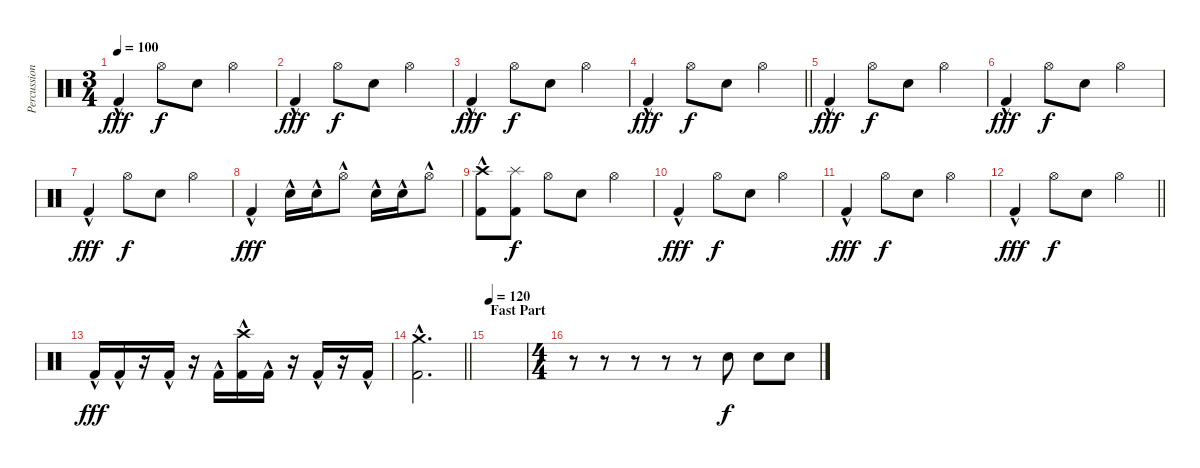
\track ("Percussion" "Percussion") {instrument percussion}
\staff {score}
\articulation defaults
\ts (3 4)
\tempo 100
\clef neutral
\ks c "Kick (hit) 2"{hac}.4{dy fff} "Hi-Hat (open)".8{dy f} "Snare (hit) 2".8 "Hi-Hat (open)".4
|
"Kick (hit) 2"{hac}.4{dy fff} "Hi-Hat (open)".8{dy f} "Snare (hit) 2".8 "Hi-Hat (open)".4 |
"Kick (hit) 2"{hac}.4{dy fff} "Hi-Hat (open)".8{dy f} "Snare (hit) 2".8 "Hi-Hat (open)".4 |
\barLineRight lightlight "Kick (hit) 2"{hac}.4{dy fff} "Hi-Hat (open)".8{dy f} "Snare (hit) 2".8 "Hi-Hat (open)".4
|
"Kick (hit) 2"{hac}.4{dy fff} "Hi-Hat (open)".8{dy f} "Snare (hit) 2".8 "Hi-Hat (open)".4 |
"Kick (hit) 2"{hac}.4{dy fff} "Hi-Hat (open)".8{dy f} "Snare (hit) 2".8 "Hi-Hat (open)".4 |
"Kick (hit) 2"{hac}.4{dy fff} "Hi-Hat (open)".8{dy f} "Snare (hit) 2".8 "Hi-Hat (open)".4 |
"Kick (hit) 2"{hac}.4{dy fff} "Snare (hit) 2"{hac}.16 "Snare (hit) 2"{hac}.16 "Hi-Hat (open)"{hac}.8 "Snare (hit) 2"{hac}.16 "Snare (hit) 2"{hac}.16 "Hi-Hat (open)"{hac}.8 |
("Crash high (hit)" "Kick (hit) 2"{hac}).8 ("Splash (hit)" "Kick (hit) 2").8{dy f} "Hi-Hat (open)".8 "Snare (hit) 2".8 "Hi-Hat (open)".4 |
"Kick (hit) 2"{hac}.4{dy fff} "Hi-Hat (open)".8{dy f} "Snare (hit) 2".8 "Hi-Hat (open)".4 |
"Kick (hit) 2"{hac}.4{dy fff} "Hi-Hat (open)".8{dy f} "Snare (hit) 2".8 "Hi-Hat (open)".4 |
\barLineRight lightlight "Kick (hit) 2"{hac}.4{dy fff} "Hi-Hat (open)".8{dy f} "Snare (hit) 2".8 "Hi-Hat (open)".4
|
"Kick (hit) 2"{hac}.16{dy fff} "Kick (hit) 2"{hac}.16 r.16 "Kick (hit) 2"{hac}.16 r.16 "Kick (hit) 2"{hac}.16 ("Crash high (hit)" "Kick (hit) 2"{hac}).16 "Kick (hit) 2"{hac}.16 r.16 "Kick (hit) 2"{hac}.16 r.16 "Kick (hit) 2"{hac}.16 |
\barLineRight lightlight
("Crash medium (hit)" "Kick (hit) 2"{hac}).2{d} |
\section ("" "Fast Part")
\tempo 120
|
\ts (4 4)
r.8 r.8 r.8 r.8 r.8 "Snare (hit) 2".8{dy f} "Snare (hit) 2".8 "Snare (hit) 2".8
